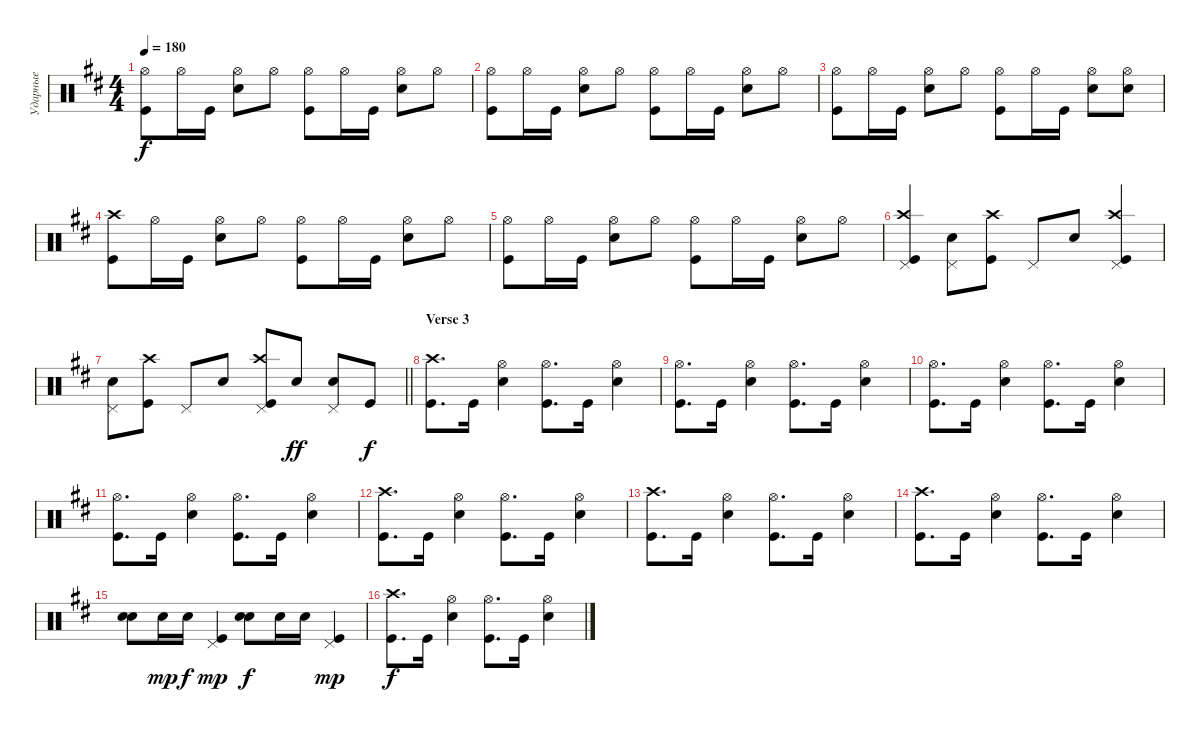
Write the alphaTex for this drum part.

\track ("Ударные" "Ударные") {instrument percussion}
\staff {score}
\articulation defaults
\ts (4 4)
\tempo 180
\clef neutral
\ks bminor
("Kick (hit)" "Hi-Hat (open)").8{dy f} "Hi-Hat (open)".16 "Kick (hit)".16 ("Hi-Hat (open)" "Snare (hit) 2").8 "Hi-Hat (open)".8 ("Kick (hit)" "Hi-Hat (open)").8 "Hi-Hat (open)".16 "Kick (hit)".16 ("Snare (hit) 2" "Hi-Hat (open)").8 "Hi-Hat (open)".8 |
("Kick (hit)" "Hi-Hat (open)").8 "Hi-Hat (open)".16 "Kick (hit)".16 ("Hi-Hat (open)" "Snare (hit) 2").8 "Hi-Hat (open)".8 ("Kick (hit)" "Hi-Hat (open)").8 "Hi-Hat (open)".16 "Kick (hit)".16 ("Snare (hit) 2" "Hi-Hat (open)").8 "Hi-Hat (open)".8 |
("Kick (hit)" "Hi-Hat (open)").8 "Hi-Hat (open)".16 "Kick (hit)".16 ("Hi-Hat (open)" "Snare (hit) 2").8 "Hi-Hat (open)".8 ("Kick (hit)" "Hi-Hat (open)").8 "Hi-Hat (open)".16 "Kick (hit)".16 ("Snare (hit) 2" "Hi-Hat (open)").8 ("Hi-Hat (open)" "Snare (hit) 2").8 |
("Kick (hit)" "Crash high (hit)").8 "Hi-Hat (open)".16 "Kick (hit)".16 ("Hi-Hat (open)" "Snare (hit) 2").8 "Hi-Hat (open)".8 ("Kick (hit)" "Hi-Hat (open)").8 "Hi-Hat (open)".16 "Kick (hit)".16 ("Snare (hit) 2" "Hi-Hat (open)").8 "Hi-Hat (open)".8 |
("Kick (hit)" "Hi-Hat (open)").8 "Hi-Hat (open)".16 "Kick (hit)".16 ("Hi-Hat (open)" "Snare (hit) 2").8 "Hi-Hat (open)".8 ("Kick (hit)" "Hi-Hat (open)").8 "Hi-Hat (open)".16 "Kick (hit)".16 ("Snare (hit) 2" "Hi-Hat (open)").8 "Hi-Hat (open)".8 |
("Kick (hit)" "Crash high (hit)" "Pedal Hi-Hat (hit)").4 ("Snare (hit) 2" "Pedal Hi-Hat (hit)").8 ("Kick (hit)" "Crash high (hit)").8 "Pedal Hi-Hat (hit)".8 "Snare (hit) 2".8 ("Kick (hit)" "Crash high (hit)" "Pedal Hi-Hat (hit)").4 |
\barLineRight lightlight
("Snare (hit) 2" "Pedal Hi-Hat (hit)").8 ("Kick (hit)" "Crash high (hit)").8 "Pedal Hi-Hat (hit)".8 "Snare (hit) 2".8 ("Kick (hit)" "Crash high (hit)" "Pedal Hi-Hat (hit)").8 "Snare (hit) 2".8{dy ff} ("Snare (hit) 2" "Pedal Hi-Hat (hit)").8 "Kick (hit)".8{dy f} |
\section ("" "Verse 3")
("Crash high (hit)" "Kick (hit)").8{d} "Kick (hit)".16 ("Hi-Hat (open)" "Snare (hit) 2").4 ("Kick (hit)" "Hi-Hat (open)").8{d} "Kick (hit)".16 ("Snare (hit) 2" "Hi-Hat (open)").4 |
("Hi-Hat (open)" "Kick (hit)").8{d} "Kick (hit)".16 ("Hi-Hat (open)" "Snare (hit) 2").4 ("Kick (hit)" "Hi-Hat (open)").8{d} "Kick (hit)".16 ("Snare (hit) 2" "Hi-Hat (open)").4 |
("Hi-Hat (open)" "Kick (hit)").8{d} "Kick (hit)".16 ("Hi-Hat (open)" "Snare (hit) 2").4 ("Kick (hit)" "Hi-Hat (open)").8{d} "Kick (hit)".16 ("Snare (hit) 2" "Hi-Hat (open)").4 |
("Hi-Hat (open)" "Kick (hit)").8{d} "Kick (hit)".16 ("Hi-Hat (open)" "Snare (hit) 2").4 ("Kick (hit)" "Hi-Hat (open)").8{d} "Kick (hit)".16 ("Snare (hit) 2" "Hi-Hat (open)").4 |
("Crash high (hit)" "Kick (hit)").8{d} "Kick (hit)".16 ("Hi-Hat (open)" "Snare (hit) 2").4 ("Kick (hit)" "Hi-Hat (open)").8{d} "Kick (hit)".16 ("Snare (hit) 2" "Hi-Hat (open)").4 |
("Crash high (hit)" "Kick (hit)").8{d} "Kick (hit)".16 ("Hi-Hat (open)" "Snare (hit) 2").4 ("Kick (hit)" "Hi-Hat (open)").8{d} "Kick (hit)".16 ("Snare (hit) 2" "Hi-Hat (open)").4 |
("Crash high (hit)" "Kick (hit)").8{d} "Kick (hit)".16 ("Hi-Hat (open)" "Snare (hit) 2").4 ("Kick (hit)" "Hi-Hat (open)").8{d} "Kick (hit)".16 ("Snare (hit) 2" "Hi-Hat (open)").4 |
("Snare (hit) 2" "Snare (hit) 2").8{bd 480} "Snare (hit) 2".16{dy mp} "Snare (hit) 2".16{dy f} ("Kick (hit)" "Pedal Hi-Hat (hit)").4{dy mp} ("Snare (hit) 2" "Snare (hit) 2").8{bd 480 dy f} "Snare (hit) 2".16 "Snare (hit) 2".16 ("Kick (hit)" "Pedal Hi-Hat (hit)").4{dy mp} |
("Crash high (hit)" "Kick (hit)").8{d dy f} "Kick (hit)".16 ("Hi-Hat (open)" "Snare (hit) 2").4 ("Kick (hit)" "Hi-Hat (open)").8{d} "Kick (hit)".16 ("Snare (hit) 2" "Hi-Hat (open)").4
